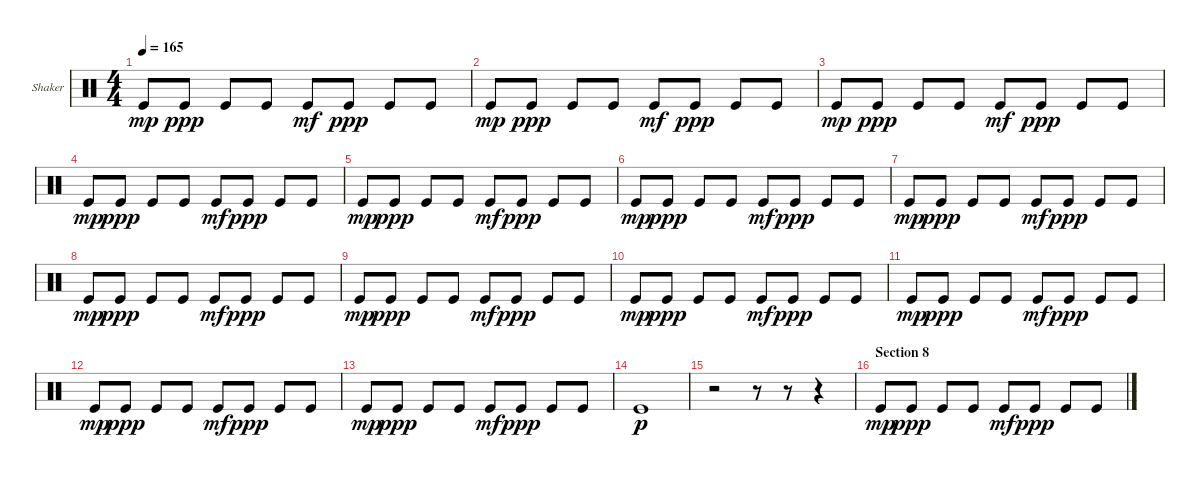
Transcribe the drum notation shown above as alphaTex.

\bracketExtendMode groupsimilarinstruments
\firstSystemTrackNameOrientation horizontal
\otherSystemsTrackNameOrientation horizontal
\track ("Shaker" "Shaker") {instrument percussion}
\staff {score}
\articulation defaults
\ts (4 4)
\tempo 165
\clef neutral
\ks c "Kick (hit)".8{dy mp} "Kick (hit)".8{dy ppp} "Kick (hit)".8 "Kick (hit)".8 "Kick (hit)".8{dy mf} "Kick (hit)".8{dy ppp} "Kick (hit)".8 "Kick (hit)".8
|
"Kick (hit)".8{dy mp} "Kick (hit)".8{dy ppp} "Kick (hit)".8 "Kick (hit)".8 "Kick (hit)".8{dy mf} "Kick (hit)".8{dy ppp} "Kick (hit)".8 "Kick (hit)".8 |
"Kick (hit)".8{dy mp} "Kick (hit)".8{dy ppp} "Kick (hit)".8 "Kick (hit)".8 "Kick (hit)".8{dy mf} "Kick (hit)".8{dy ppp} "Kick (hit)".8 "Kick (hit)".8 |
"Kick (hit)".8{dy mp} "Kick (hit)".8{dy ppp} "Kick (hit)".8 "Kick (hit)".8 "Kick (hit)".8{dy mf} "Kick (hit)".8{dy ppp} "Kick (hit)".8 "Kick (hit)".8 |
"Kick (hit)".8{dy mp} "Kick (hit)".8{dy ppp} "Kick (hit)".8 "Kick (hit)".8 "Kick (hit)".8{dy mf} "Kick (hit)".8{dy ppp} "Kick (hit)".8 "Kick (hit)".8 |
"Kick (hit)".8{dy mp} "Kick (hit)".8{dy ppp} "Kick (hit)".8 "Kick (hit)".8 "Kick (hit)".8{dy mf} "Kick (hit)".8{dy ppp} "Kick (hit)".8 "Kick (hit)".8 |
"Kick (hit)".8{dy mp} "Kick (hit)".8{dy ppp} "Kick (hit)".8 "Kick (hit)".8 "Kick (hit)".8{dy mf} "Kick (hit)".8{dy ppp} "Kick (hit)".8 "Kick (hit)".8 |
"Kick (hit)".8{dy mp} "Kick (hit)".8{dy ppp} "Kick (hit)".8 "Kick (hit)".8 "Kick (hit)".8{dy mf} "Kick (hit)".8{dy ppp} "Kick (hit)".8 "Kick (hit)".8 |
"Kick (hit)".8{dy mp} "Kick (hit)".8{dy ppp} "Kick (hit)".8 "Kick (hit)".8 "Kick (hit)".8{dy mf} "Kick (hit)".8{dy ppp} "Kick (hit)".8 "Kick (hit)".8 |
"Kick (hit)".8{dy mp} "Kick (hit)".8{dy ppp} "Kick (hit)".8 "Kick (hit)".8 "Kick (hit)".8{dy mf} "Kick (hit)".8{dy ppp} "Kick (hit)".8 "Kick (hit)".8 |
"Kick (hit)".8{dy mp} "Kick (hit)".8{dy ppp} "Kick (hit)".8 "Kick (hit)".8 "Kick (hit)".8{dy mf} "Kick (hit)".8{dy ppp} "Kick (hit)".8 "Kick (hit)".8 |
"Kick (hit)".8{dy mp} "Kick (hit)".8{dy ppp} "Kick (hit)".8 "Kick (hit)".8 "Kick (hit)".8{dy mf} "Kick (hit)".8{dy ppp} "Kick (hit)".8 "Kick (hit)".8 |
"Kick (hit)".8{dy mp} "Kick (hit)".8{dy ppp} "Kick (hit)".8 "Kick (hit)".8 "Kick (hit)".8{dy mf} "Kick (hit)".8{dy ppp} "Kick (hit)".8 "Kick (hit)".8 |
"Kick (hit)".1{dy p} |
r.2 r.8 r.8 r.4 |
\section ("" "Section 8")
"Kick (hit)".8{dy mp} "Kick (hit)".8{dy ppp} "Kick (hit)".8 "Kick (hit)".8 "Kick (hit)".8{dy mf} "Kick (hit)".8{dy ppp} "Kick (hit)".8 "Kick (hit)".8
